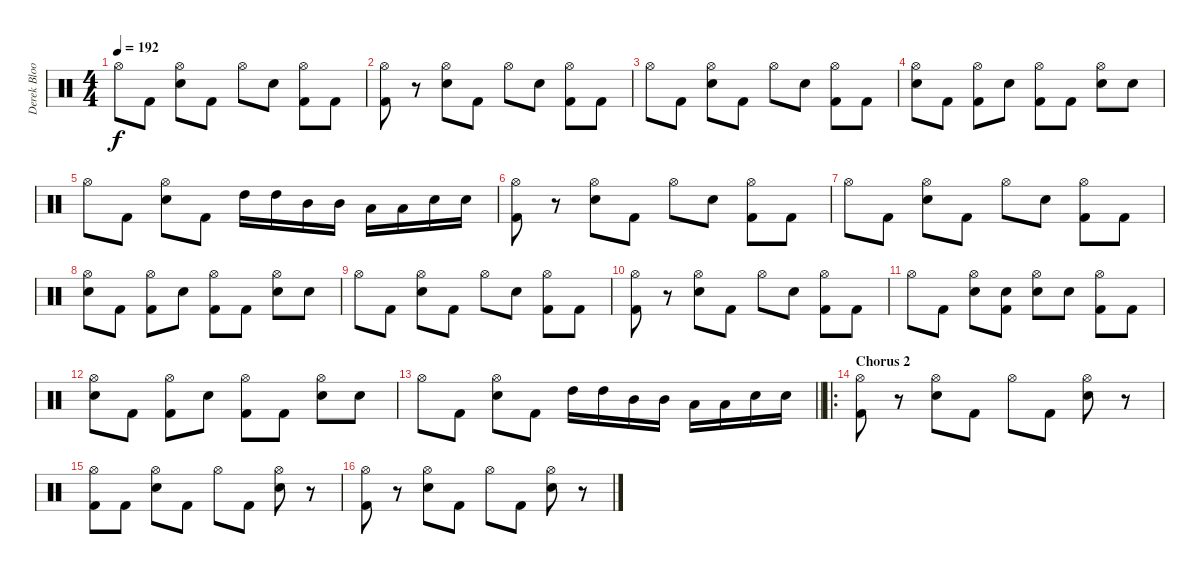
\track ("Derek Bloom" "Derek Bloo") {instrument percussion}
\staff {score}
\articulation defaults
\ts (4 4)
\tempo 192
\clef neutral
\ks c "Hi-Hat (open)".8{dy f} "Kick (hit) 2".8
("Hi-Hat (open)" "Electric Snare (hit)").8 "Kick (hit) 2".8 "Hi-Hat (open)".8 "Electric Snare (hit)".8 ("Hi-Hat (open)" "Kick (hit) 2").8 "Kick (hit) 2".8 |
("Hi-Hat (open)" "Kick (hit) 2").8 r.8 ("Hi-Hat (open)" "Electric Snare (hit)").8 "Kick (hit) 2".8 "Hi-Hat (open)".8 "Electric Snare (hit)".8 ("Hi-Hat (open)" "Kick (hit) 2").8 "Kick (hit) 2".8 |
"Hi-Hat (open)".8 "Kick (hit) 2".8 ("Hi-Hat (open)" "Electric Snare (hit)").8 "Kick (hit) 2".8 "Hi-Hat (open)".8 "Electric Snare (hit)".8 ("Hi-Hat (open)" "Kick (hit) 2").8 "Kick (hit) 2".8 |
("Hi-Hat (open)" "Electric Snare (hit)").8 "Kick (hit) 2".8 ("Hi-Hat (open)" "Kick (hit) 2").8 "Electric Snare (hit)".8 ("Hi-Hat (open)" "Kick (hit) 2").8 "Kick (hit) 2".8 ("Hi-Hat (open)" "Electric Snare (hit)").8 "Electric Snare (hit)".8 |
"Hi-Hat (open)".8 "Kick (hit) 2".8 ("Hi-Hat (open)" "Electric Snare (hit)").8 "Kick (hit) 2".8 "High Tom (hit)".16 "High Tom (hit)".16 "Mid Tom (hit)".16 "Mid Tom (hit)".16 "Low Tom (hit)".16 "Low Tom (hit)".16 "Electric Snare (hit)".16 "Electric Snare (hit)".16 |
("Hi-Hat (open)" "Kick (hit) 2").8 r.8 ("Hi-Hat (open)" "Electric Snare (hit)").8 "Kick (hit) 2".8 "Hi-Hat (open)".8 "Electric Snare (hit)".8 ("Hi-Hat (open)" "Kick (hit) 2").8 "Kick (hit) 2".8 |
"Hi-Hat (open)".8 "Kick (hit) 2".8 ("Hi-Hat (open)" "Electric Snare (hit)").8 "Kick (hit) 2".8 "Hi-Hat (open)".8 "Electric Snare (hit)".8 ("Hi-Hat (open)" "Kick (hit) 2").8 "Kick (hit) 2".8 |
("Hi-Hat (open)" "Electric Snare (hit)").8 "Kick (hit) 2".8 ("Hi-Hat (open)" "Kick (hit) 2").8 "Electric Snare (hit)".8 ("Hi-Hat (open)" "Kick (hit) 2").8 "Kick (hit) 2".8 ("Hi-Hat (open)" "Electric Snare (hit)").8 "Electric Snare (hit)".8 |
"Hi-Hat (open)".8 "Kick (hit) 2".8 ("Hi-Hat (open)" "Electric Snare (hit)").8 "Kick (hit) 2".8 "Hi-Hat (open)".8 "Electric Snare (hit)".8 ("Hi-Hat (open)" "Kick (hit) 2").8 "Kick (hit) 2".8 |
("Hi-Hat (open)" "Kick (hit) 2").8 r.8 ("Hi-Hat (open)" "Electric Snare (hit)").8 "Kick (hit) 2".8 "Hi-Hat (open)".8 "Electric Snare (hit)".8 ("Hi-Hat (open)" "Kick (hit) 2").8 "Kick (hit) 2".8 |
"Hi-Hat (open)".8 "Kick (hit) 2".8 ("Hi-Hat (open)" "Electric Snare (hit)").8 ("Electric Snare (hit)" "Kick (hit) 2").8 ("Hi-Hat (open)" "Electric Snare (hit)").8 "Electric Snare (hit)".8 ("Hi-Hat (open)" "Kick (hit) 2").8 "Kick (hit) 2".8 |
("Hi-Hat (open)" "Electric Snare (hit)").8 "Kick (hit) 2".8 ("Hi-Hat (open)" "Kick (hit) 2").8 "Electric Snare (hit)".8 ("Hi-Hat (open)" "Kick (hit) 2").8 "Kick (hit) 2".8 ("Hi-Hat (open)" "Electric Snare (hit)").8 "Electric Snare (hit)".8 |
\barLineRight lightlight "Hi-Hat (open)".8 "Kick (hit) 2".8
("Hi-Hat (open)" "Electric Snare (hit)").8 "Kick (hit) 2".8 "High Tom (hit)".16 "High Tom (hit)".16 "Mid Tom (hit)".16 "Mid Tom (hit)".16 "Low Tom (hit)".16 "Low Tom (hit)".16 "Electric Snare (hit)".16 "Electric Snare (hit)".16 |
\ro
\section ("" "Chorus 2")
("Hi-Hat (open)" "Kick (hit) 2").8 r.8 ("Hi-Hat (open)" "Electric Snare (hit)").8 "Kick (hit) 2".8 "Hi-Hat (open)".8 "Kick (hit) 2".8 ("Hi-Hat (open)" "Electric Snare (hit)").8 r.8 |
("Hi-Hat (open)" "Kick (hit) 2").8 "Kick (hit) 2".8 ("Hi-Hat (open)" "Electric Snare (hit)").8 "Kick (hit) 2".8 "Hi-Hat (open)".8 "Kick (hit) 2".8 ("Hi-Hat (open)" "Electric Snare (hit)").8 r.8 |
("Hi-Hat (open)" "Kick (hit) 2").8 r.8 ("Hi-Hat (open)" "Electric Snare (hit)").8 "Kick (hit) 2".8 "Hi-Hat (open)".8 "Kick (hit) 2".8 ("Hi-Hat (open)" "Electric Snare (hit)").8 r.8
